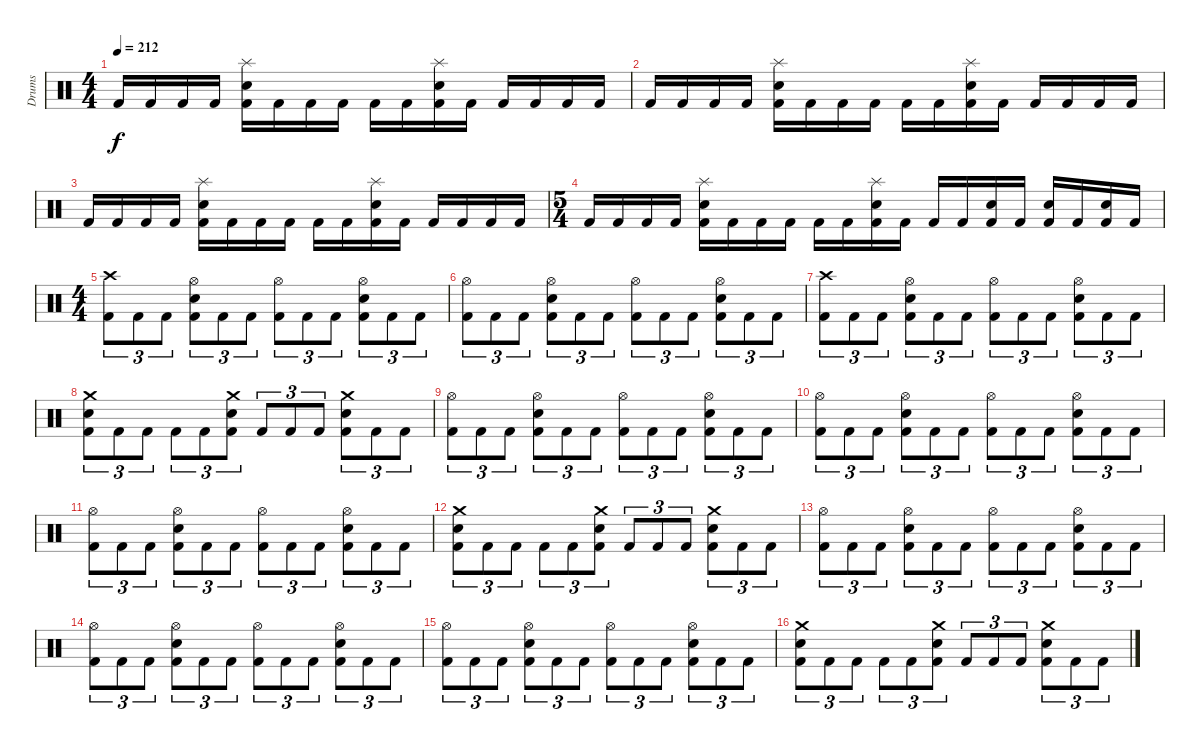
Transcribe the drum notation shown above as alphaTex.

\track ("Drums" "Drums") {instrument percussion}
\staff {score}
\articulation defaults
\ts (4 4)
\tempo 212
\clef neutral
\ks c "Kick (hit) 2".16{dy f} "Kick (hit) 2".16 "Kick (hit) 2".16 "Kick (hit) 2".16
("Kick (hit) 2" "Snare (hit) 2" "Splash (hit)").16 "Kick (hit) 2".16 "Kick (hit) 2".16 "Kick (hit) 2".16 "Kick (hit) 2".16 "Kick (hit) 2".16 ("Kick (hit) 2" "Snare (hit) 2" "Splash (hit)").16 "Kick (hit) 2".16 "Kick (hit) 2".16 "Kick (hit) 2".16 "Kick (hit) 2".16 "Kick (hit) 2".16 |
"Kick (hit) 2".16 "Kick (hit) 2".16 "Kick (hit) 2".16 "Kick (hit) 2".16 ("Kick (hit) 2" "Snare (hit) 2" "Splash (hit)").16 "Kick (hit) 2".16 "Kick (hit) 2".16 "Kick (hit) 2".16 "Kick (hit) 2".16 "Kick (hit) 2".16 ("Kick (hit) 2" "Snare (hit) 2" "Splash (hit)").16 "Kick (hit) 2".16 "Kick (hit) 2".16 "Kick (hit) 2".16 "Kick (hit) 2".16 "Kick (hit) 2".16 |
"Kick (hit) 2".16 "Kick (hit) 2".16 "Kick (hit) 2".16 "Kick (hit) 2".16 ("Kick (hit) 2" "Snare (hit) 2" "Splash (hit)").16 "Kick (hit) 2".16 "Kick (hit) 2".16 "Kick (hit) 2".16 "Kick (hit) 2".16 "Kick (hit) 2".16 ("Kick (hit) 2" "Snare (hit) 2" "Splash (hit)").16 "Kick (hit) 2".16 "Kick (hit) 2".16 "Kick (hit) 2".16 "Kick (hit) 2".16 "Kick (hit) 2".16 |
\ts (5 4)
"Kick (hit) 2".16 "Kick (hit) 2".16 "Kick (hit) 2".16 "Kick (hit) 2".16 ("Kick (hit) 2" "Snare (hit) 2" "Splash (hit)").16 "Kick (hit) 2".16 "Kick (hit) 2".16 "Kick (hit) 2".16 "Kick (hit) 2".16 "Kick (hit) 2".16 ("Kick (hit) 2" "Snare (hit) 2" "Splash (hit)").16 "Kick (hit) 2".16 "Kick (hit) 2".16 "Kick (hit) 2".16 ("Kick (hit) 2" "Snare (hit) 2").16 "Kick (hit) 2".16 ("Kick (hit) 2" "Snare (hit) 2").16 "Kick (hit) 2".16 ("Kick (hit) 2" "Snare (hit) 2").16 "Kick (hit) 2".16 |
\ts (4 4)
("Kick (hit) 2" "Crash high (hit)").8{tu (3 2)} "Kick (hit) 2".8{tu (3 2)} "Kick (hit) 2".8{tu (3 2)} ("Kick (hit) 2" "Snare (hit) 2" "Hi-Hat (open)").8{tu (3 2)} "Kick (hit) 2".8{tu (3 2)} "Kick (hit) 2".8{tu (3 2)} ("Kick (hit) 2" "Hi-Hat (open)").8{tu (3 2)} "Kick (hit) 2".8{tu (3 2)} "Kick (hit) 2".8{tu (3 2)} ("Kick (hit) 2" "Snare (hit) 2" "Hi-Hat (open)").8{tu (3 2)} "Kick (hit) 2".8{tu (3 2)} "Kick (hit) 2".8{tu (3 2)} |
("Kick (hit) 2" "Hi-Hat (open)").8{tu (3 2)} "Kick (hit) 2".8{tu (3 2)} "Kick (hit) 2".8{tu (3 2)} ("Kick (hit) 2" "Snare (hit) 2" "Hi-Hat (open)").8{tu (3 2)} "Kick (hit) 2".8{tu (3 2)} "Kick (hit) 2".8{tu (3 2)} ("Kick (hit) 2" "Hi-Hat (open)").8{tu (3 2)} "Kick (hit) 2".8{tu (3 2)} "Kick (hit) 2".8{tu (3 2)} ("Kick (hit) 2" "Snare (hit) 2" "Hi-Hat (open)").8{tu (3 2)} "Kick (hit) 2".8{tu (3 2)} "Kick (hit) 2".8{tu (3 2)} |
("Kick (hit) 2" "Crash high (hit)").8{tu (3 2)} "Kick (hit) 2".8{tu (3 2)} "Kick (hit) 2".8{tu (3 2)} ("Kick (hit) 2" "Snare (hit) 2" "Hi-Hat (open)").8{tu (3 2)} "Kick (hit) 2".8{tu (3 2)} "Kick (hit) 2".8{tu (3 2)} ("Kick (hit) 2" "Hi-Hat (open)").8{tu (3 2)} "Kick (hit) 2".8{tu (3 2)} "Kick (hit) 2".8{tu (3 2)} ("Kick (hit) 2" "Snare (hit) 2" "Hi-Hat (open)").8{tu (3 2)} "Kick (hit) 2".8{tu (3 2)} "Kick (hit) 2".8{tu (3 2)} |
("Kick (hit) 2" "Snare (hit) 2" "Crash medium (hit)").8{tu (3 2)} "Kick (hit) 2".8{tu (3 2)} "Kick (hit) 2".8{tu (3 2)} "Kick (hit) 2".8{tu (3 2)} "Kick (hit) 2".8{tu (3 2)} ("Kick (hit) 2" "Snare (hit) 2" "Crash medium (hit)").8{tu (3 2)} "Kick (hit) 2".8{tu (3 2)} "Kick (hit) 2".8{tu (3 2)} "Kick (hit) 2".8{tu (3 2)} ("Kick (hit) 2" "Snare (hit) 2" "Crash medium (hit)").8{tu (3 2)} "Kick (hit) 2".8{tu (3 2)} "Kick (hit) 2".8{tu (3 2)} |
("Kick (hit) 2" "Hi-Hat (open)").8{tu (3 2)} "Kick (hit) 2".8{tu (3 2)} "Kick (hit) 2".8{tu (3 2)} ("Kick (hit) 2" "Snare (hit) 2" "Hi-Hat (open)").8{tu (3 2)} "Kick (hit) 2".8{tu (3 2)} "Kick (hit) 2".8{tu (3 2)} ("Kick (hit) 2" "Hi-Hat (open)").8{tu (3 2)} "Kick (hit) 2".8{tu (3 2)} "Kick (hit) 2".8{tu (3 2)} ("Kick (hit) 2" "Snare (hit) 2" "Hi-Hat (open)").8{tu (3 2)} "Kick (hit) 2".8{tu (3 2)} "Kick (hit) 2".8{tu (3 2)} |
("Kick (hit) 2" "Hi-Hat (open)").8{tu (3 2)} "Kick (hit) 2".8{tu (3 2)} "Kick (hit) 2".8{tu (3 2)} ("Kick (hit) 2" "Snare (hit) 2" "Hi-Hat (open)").8{tu (3 2)} "Kick (hit) 2".8{tu (3 2)} "Kick (hit) 2".8{tu (3 2)} ("Kick (hit) 2" "Hi-Hat (open)").8{tu (3 2)} "Kick (hit) 2".8{tu (3 2)} "Kick (hit) 2".8{tu (3 2)} ("Kick (hit) 2" "Snare (hit) 2" "Hi-Hat (open)").8{tu (3 2)} "Kick (hit) 2".8{tu (3 2)} "Kick (hit) 2".8{tu (3 2)} |
("Kick (hit) 2" "Hi-Hat (open)").8{tu (3 2)} "Kick (hit) 2".8{tu (3 2)} "Kick (hit) 2".8{tu (3 2)} ("Kick (hit) 2" "Snare (hit) 2" "Hi-Hat (open)").8{tu (3 2)} "Kick (hit) 2".8{tu (3 2)} "Kick (hit) 2".8{tu (3 2)} ("Kick (hit) 2" "Hi-Hat (open)").8{tu (3 2)} "Kick (hit) 2".8{tu (3 2)} "Kick (hit) 2".8{tu (3 2)} ("Kick (hit) 2" "Snare (hit) 2" "Hi-Hat (open)").8{tu (3 2)} "Kick (hit) 2".8{tu (3 2)} "Kick (hit) 2".8{tu (3 2)} |
("Kick (hit) 2" "Snare (hit) 2" "Crash medium (hit)").8{tu (3 2)} "Kick (hit) 2".8{tu (3 2)} "Kick (hit) 2".8{tu (3 2)} "Kick (hit) 2".8{tu (3 2)} "Kick (hit) 2".8{tu (3 2)} ("Kick (hit) 2" "Snare (hit) 2" "Crash medium (hit)").8{tu (3 2)} "Kick (hit) 2".8{tu (3 2)} "Kick (hit) 2".8{tu (3 2)} "Kick (hit) 2".8{tu (3 2)} ("Kick (hit) 2" "Snare (hit) 2" "Crash medium (hit)").8{tu (3 2)} "Kick (hit) 2".8{tu (3 2)} "Kick (hit) 2".8{tu (3 2)} |
("Kick (hit) 2" "Hi-Hat (open)").8{tu (3 2)} "Kick (hit) 2".8{tu (3 2)} "Kick (hit) 2".8{tu (3 2)} ("Kick (hit) 2" "Snare (hit) 2" "Hi-Hat (open)").8{tu (3 2)} "Kick (hit) 2".8{tu (3 2)} "Kick (hit) 2".8{tu (3 2)} ("Kick (hit) 2" "Hi-Hat (open)").8{tu (3 2)} "Kick (hit) 2".8{tu (3 2)} "Kick (hit) 2".8{tu (3 2)} ("Kick (hit) 2" "Snare (hit) 2" "Hi-Hat (open)").8{tu (3 2)} "Kick (hit) 2".8{tu (3 2)} "Kick (hit) 2".8{tu (3 2)} |
("Kick (hit) 2" "Hi-Hat (open)").8{tu (3 2)} "Kick (hit) 2".8{tu (3 2)} "Kick (hit) 2".8{tu (3 2)} ("Kick (hit) 2" "Snare (hit) 2" "Hi-Hat (open)").8{tu (3 2)} "Kick (hit) 2".8{tu (3 2)} "Kick (hit) 2".8{tu (3 2)} ("Kick (hit) 2" "Hi-Hat (open)").8{tu (3 2)} "Kick (hit) 2".8{tu (3 2)} "Kick (hit) 2".8{tu (3 2)} ("Kick (hit) 2" "Snare (hit) 2" "Hi-Hat (open)").8{tu (3 2)} "Kick (hit) 2".8{tu (3 2)} "Kick (hit) 2".8{tu (3 2)} |
("Kick (hit) 2" "Hi-Hat (open)").8{tu (3 2)} "Kick (hit) 2".8{tu (3 2)} "Kick (hit) 2".8{tu (3 2)} ("Kick (hit) 2" "Snare (hit) 2" "Hi-Hat (open)").8{tu (3 2)} "Kick (hit) 2".8{tu (3 2)} "Kick (hit) 2".8{tu (3 2)} ("Kick (hit) 2" "Hi-Hat (open)").8{tu (3 2)} "Kick (hit) 2".8{tu (3 2)} "Kick (hit) 2".8{tu (3 2)} ("Kick (hit) 2" "Snare (hit) 2" "Hi-Hat (open)").8{tu (3 2)} "Kick (hit) 2".8{tu (3 2)} "Kick (hit) 2".8{tu (3 2)} |
("Kick (hit) 2" "Snare (hit) 2" "Crash medium (hit)").8{tu (3 2)} "Kick (hit) 2".8{tu (3 2)} "Kick (hit) 2".8{tu (3 2)} "Kick (hit) 2".8{tu (3 2)} "Kick (hit) 2".8{tu (3 2)} ("Kick (hit) 2" "Snare (hit) 2" "Crash medium (hit)").8{tu (3 2)} "Kick (hit) 2".8{tu (3 2)} "Kick (hit) 2".8{tu (3 2)} "Kick (hit) 2".8{tu (3 2)} ("Kick (hit) 2" "Snare (hit) 2" "Crash medium (hit)").8{tu (3 2)} "Kick (hit) 2".8{tu (3 2)} "Kick (hit) 2".8{tu (3 2)}
